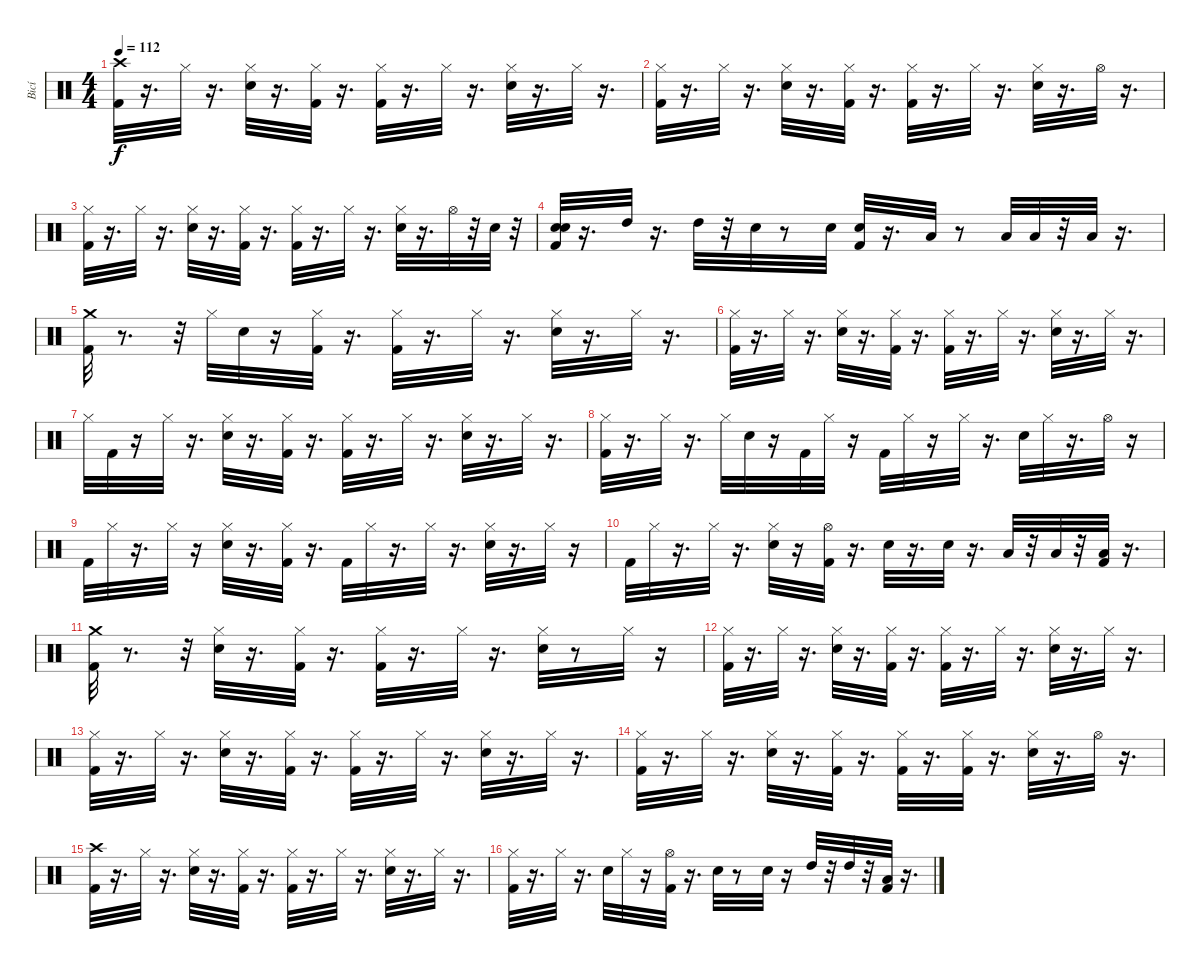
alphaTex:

\track ("Bicí" "Bicí") {instrument percussion}
\staff {score}
\articulation defaults
\ts (4 4)
\tempo 112
\clef neutral
\ks c
("Kick (hit) 2" "Crash high (hit)").32{dy f} r.16{d} "Hi-Hat (closed)".32 r.16{d} ("Snare (hit) 2" "Hi-Hat (closed)").32 r.16{d} ("Kick (hit) 2" "Hi-Hat (closed)").32 r.16{d} ("Kick (hit) 2" "Hi-Hat (closed)").32 r.16{d} "Hi-Hat (closed)".32 r.16{d} ("Snare (hit) 2" "Hi-Hat (closed)").32 r.16{d} "Hi-Hat (closed)".32 r.16{d} |
("Kick (hit) 2" "Hi-Hat (closed)").32 r.16{d} "Hi-Hat (closed)".32 r.16{d} ("Hi-Hat (closed)" "Snare (hit) 2").32 r.16{d} ("Kick (hit) 2" "Hi-Hat (closed)").32 r.16{d} ("Kick (hit) 2" "Hi-Hat (closed)").32 r.16{d} "Hi-Hat (closed)".32 r.16{d} ("Hi-Hat (closed)" "Snare (hit) 2").32 r.16{d} "Hi-Hat (open)".32 r.16{d} |
("Hi-Hat (closed)" "Kick (hit) 2").32 r.16{d} "Hi-Hat (closed)".32 r.16{d} ("Hi-Hat (closed)" "Snare (hit) 2").32 r.16{d} ("Kick (hit) 2" "Hi-Hat (closed)").32 r.16{d} ("Kick (hit) 2" "Hi-Hat (closed)").32 r.16{d} "Hi-Hat (closed)".32 r.16{d} ("Snare (hit) 2" "Hi-Hat (closed)").32 r.16{d} "Hi-Hat (open)".32 r.32 "Snare (hit) 2".32 r.32 |
("Snare (hit) 2" "Kick (hit) 2" "Snare (hit) 2").32 r.16{d} "High Tom (hit)".32 r.16{d} "High Tom (hit)".32 r.32 "Snare (hit) 2".32 r.8 "Snare (hit) 2".32 ("Snare (hit) 2" "Kick (hit) 2").32 r.16{d} "Low Tom (hit)".32 r.8 "Low Tom (hit)".32 "Low Floor Tom (hit)".32 r.32 "Low Floor Tom (hit)".32 r.16{d} |
("Kick (hit) 2" "Crash medium (hit)").32 r.8{d} r.32 "Hi-Hat (closed)".32 "Snare (hit) 2".32 r.16 ("Kick (hit) 2" "Hi-Hat (closed)").32 r.16{d} ("Kick (hit) 2" "Hi-Hat (closed)").32 r.16{d} "Hi-Hat (closed)".32 r.16{d} ("Snare (hit) 2" "Hi-Hat (closed)").32 r.16{d} "Hi-Hat (closed)".32 r.16{d} |
("Kick (hit) 2" "Hi-Hat (closed)").32 r.16{d} "Hi-Hat (closed)".32 r.16{d} ("Snare (hit) 2" "Hi-Hat (closed)").32 r.16{d} ("Kick (hit) 2" "Hi-Hat (closed)").32 r.16{d} ("Kick (hit) 2" "Hi-Hat (closed)").32 r.16{d} "Hi-Hat (closed)".32 r.16{d} ("Snare (hit) 2" "Hi-Hat (closed)").32 r.16{d} "Hi-Hat (closed)".32 r.16{d} |
"Hi-Hat (closed)".32 "Kick (hit) 2".32 r.16 "Hi-Hat (closed)".32 r.16{d} ("Hi-Hat (closed)" "Snare (hit) 2").32 r.16{d} ("Kick (hit) 2" "Hi-Hat (closed)").32 r.16{d} ("Kick (hit) 2" "Hi-Hat (closed)").32 r.16{d} "Hi-Hat (closed)".32 r.16{d} ("Hi-Hat (closed)" "Snare (hit) 2").32 r.16{d} "Hi-Hat (closed)".32 r.16{d} |
("Hi-Hat (closed)" "Kick (hit) 2").32 r.16{d} "Hi-Hat (closed)".32 r.16{d} "Hi-Hat (closed)".32 "Snare (hit) 2".32 r.16 "Kick (hit) 2".32 "Hi-Hat (closed)".32 r.16 "Kick (hit) 2".32 "Hi-Hat (closed)".32 r.16 "Hi-Hat (closed)".32 r.16{d} "Snare (hit) 2".32 "Hi-Hat (closed)".32 r.16{d} "Hi-Hat (open)".32 r.16 |
"Kick (hit) 2".32 "Hi-Hat (closed)".32 r.16{d} "Hi-Hat (closed)".32 r.16 ("Snare (hit) 2" "Hi-Hat (closed)").32 r.16{d} ("Kick (hit) 2" "Hi-Hat (closed)").32 r.16{d} "Kick (hit) 2".32 "Hi-Hat (closed)".32 r.16{d} "Hi-Hat (closed)".32 r.16{d} ("Hi-Hat (closed)" "Snare (hit) 2").32 r.16{d} "Hi-Hat (closed)".32 r.16 |
"Kick (hit) 2".32 "Hi-Hat (closed)".32 r.16{d} "Hi-Hat (closed)".32 r.16{d} ("Snare (hit) 2" "Hi-Hat (closed)").32 r.16 ("Kick (hit) 2" "Hi-Hat (open)").32 r.16{d} "Snare (hit) 2".32 r.16{d} "Snare (hit) 2".32 r.16{d} "Low Tom (hit)".32 r.32 "Low Floor Tom (hit)".32 r.32 ("Low Floor Tom (hit)" "Kick (hit) 2").32 r.16{d} |
("Kick (hit) 2" "Crash medium (hit)").32 r.8{d} r.32 ("Hi-Hat (closed)" "Snare (hit) 2").32 r.16{d} ("Kick (hit) 2" "Hi-Hat (closed)").32 r.16{d} ("Kick (hit) 2" "Hi-Hat (closed)").32 r.16{d} "Hi-Hat (closed)".32 r.16{d} ("Snare (hit) 2" "Hi-Hat (closed)").32 r.8 "Hi-Hat (closed)".32 r.16 |
("Kick (hit) 2" "Hi-Hat (closed)").32 r.16{d} "Hi-Hat (closed)".32 r.16{d} ("Snare (hit) 2" "Hi-Hat (closed)").32 r.16{d} ("Kick (hit) 2" "Hi-Hat (closed)").32 r.16{d} ("Kick (hit) 2" "Hi-Hat (closed)").32 r.16{d} "Hi-Hat (closed)".32 r.16{d} ("Snare (hit) 2" "Hi-Hat (closed)").32 r.16{d} "Hi-Hat (closed)".32 r.16{d} |
("Kick (hit) 2" "Hi-Hat (closed)").32 r.16{d} "Hi-Hat (closed)".32 r.16{d} ("Snare (hit) 2" "Hi-Hat (closed)").32 r.16{d} ("Kick (hit) 2" "Hi-Hat (closed)").32 r.16{d} ("Kick (hit) 2" "Hi-Hat (closed)").32 r.16{d} "Hi-Hat (closed)".32 r.16{d} ("Snare (hit) 2" "Hi-Hat (closed)").32 r.16{d} "Hi-Hat (closed)".32 r.16{d} |
("Kick (hit) 2" "Hi-Hat (closed)").32 r.16{d} "Hi-Hat (closed)".32 r.16{d} ("Snare (hit) 2" "Hi-Hat (closed)").32 r.16{d} ("Kick (hit) 2" "Hi-Hat (closed)").32 r.16{d} ("Kick (hit) 2" "Hi-Hat (closed)").32 r.16{d} ("Hi-Hat (closed)" "Kick (hit) 2").32 r.16{d} ("Snare (hit) 2" "Hi-Hat (closed)").32 r.16{d} "Hi-Hat (open)".32 r.16{d} |
("Kick (hit) 2" "Crash high (hit)").32 r.16{d} "Hi-Hat (closed)".32 r.16{d} ("Snare (hit) 2" "Hi-Hat (closed)").32 r.16{d} ("Kick (hit) 2" "Hi-Hat (closed)").32 r.16{d} ("Kick (hit) 2" "Hi-Hat (closed)").32 r.16{d} "Hi-Hat (closed)".32 r.16{d} ("Hi-Hat (closed)" "Snare (hit) 2").32 r.16{d} "Hi-Hat (closed)".32 r.16{d} |
("Kick (hit) 2" "Hi-Hat (closed)").32 r.16{d} "Hi-Hat (closed)".32 r.16{d} "Snare (hit) 2".32 "Hi-Hat (closed)".32 r.16 ("Kick (hit) 2" "Hi-Hat (open)").32 r.16{d} "Snare (hit) 2".32 r.8 "Snare (hit) 2".32 r.16 "High Tom (hit)".32 r.32 "High Tom (hit)".32 r.32 ("Kick (hit) 2" "Low Tom (hit)").32 r.16{d}
